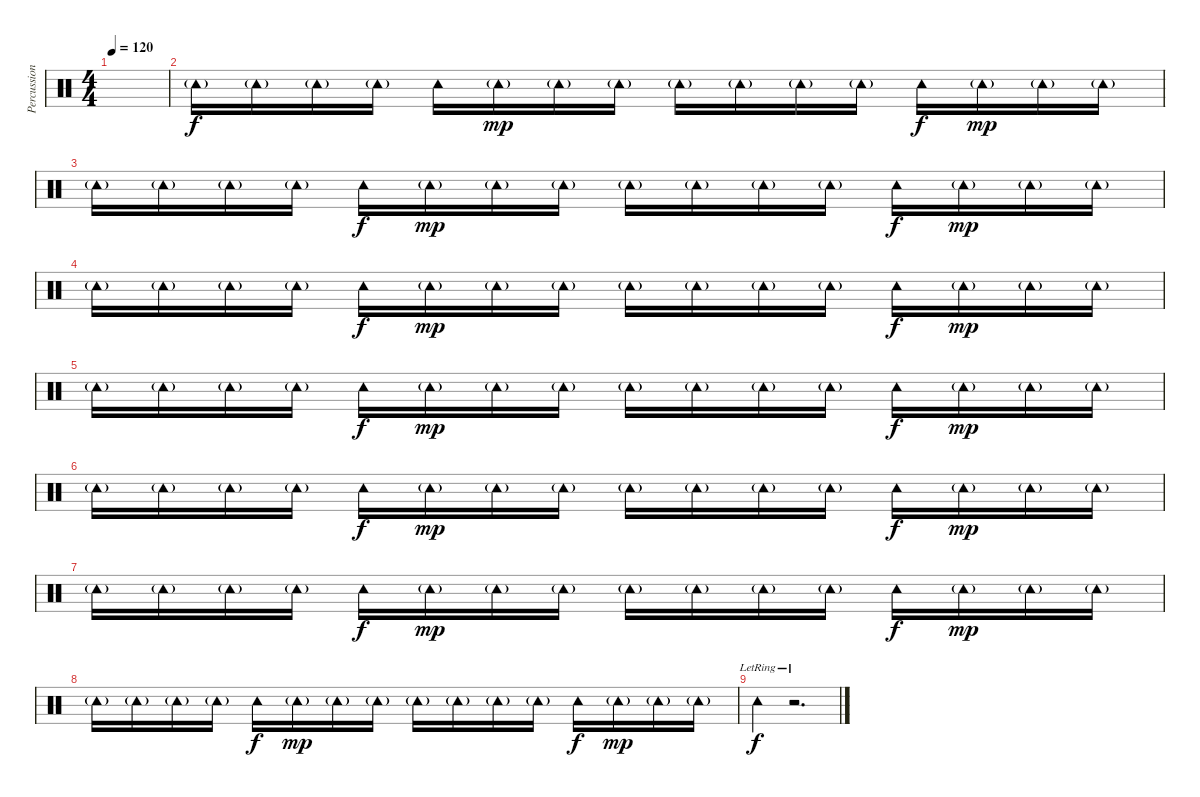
\track ("Percussion" "Percussion") {instrument percussion}
\staff {score}
\articulation defaults
\ts (4 4)
\tempo 120
\clef neutral
\ks c
|
"Tambourine (hit)"{g}.16 "Tambourine (hit)"{g}.16 "Tambourine (hit)"{g}.16 "Tambourine (hit)"{g}.16 "Tambourine (hit)".16{dy f} "Tambourine (hit)"{g}.16{dy mp} "Tambourine (hit)"{g}.16 "Tambourine (hit)"{g}.16 "Tambourine (hit)"{g}.16 "Tambourine (hit)"{g}.16 "Tambourine (hit)"{g}.16 "Tambourine (hit)"{g}.16 "Tambourine (hit)".16{dy f} "Tambourine (hit)"{g}.16{dy mp} "Tambourine (hit)"{g}.16 "Tambourine (hit)"{g}.16 |
"Tambourine (hit)"{g}.16 "Tambourine (hit)"{g}.16 "Tambourine (hit)"{g}.16 "Tambourine (hit)"{g}.16 "Tambourine (hit)".16{dy f} "Tambourine (hit)"{g}.16{dy mp} "Tambourine (hit)"{g}.16 "Tambourine (hit)"{g}.16 "Tambourine (hit)"{g}.16 "Tambourine (hit)"{g}.16 "Tambourine (hit)"{g}.16 "Tambourine (hit)"{g}.16 "Tambourine (hit)".16{dy f} "Tambourine (hit)"{g}.16{dy mp} "Tambourine (hit)"{g}.16 "Tambourine (hit)"{g}.16 |
"Tambourine (hit)"{g}.16 "Tambourine (hit)"{g}.16 "Tambourine (hit)"{g}.16 "Tambourine (hit)"{g}.16 "Tambourine (hit)".16{dy f} "Tambourine (hit)"{g}.16{dy mp} "Tambourine (hit)"{g}.16 "Tambourine (hit)"{g}.16 "Tambourine (hit)"{g}.16 "Tambourine (hit)"{g}.16 "Tambourine (hit)"{g}.16 "Tambourine (hit)"{g}.16 "Tambourine (hit)".16{dy f} "Tambourine (hit)"{g}.16{dy mp} "Tambourine (hit)"{g}.16 "Tambourine (hit)"{g}.16 |
"Tambourine (hit)"{g}.16 "Tambourine (hit)"{g}.16 "Tambourine (hit)"{g}.16 "Tambourine (hit)"{g}.16 "Tambourine (hit)".16{dy f} "Tambourine (hit)"{g}.16{dy mp} "Tambourine (hit)"{g}.16 "Tambourine (hit)"{g}.16 "Tambourine (hit)"{g}.16 "Tambourine (hit)"{g}.16 "Tambourine (hit)"{g}.16 "Tambourine (hit)"{g}.16 "Tambourine (hit)".16{dy f} "Tambourine (hit)"{g}.16{dy mp} "Tambourine (hit)"{g}.16 "Tambourine (hit)"{g}.16 |
"Tambourine (hit)"{g}.16 "Tambourine (hit)"{g}.16 "Tambourine (hit)"{g}.16 "Tambourine (hit)"{g}.16 "Tambourine (hit)".16{dy f} "Tambourine (hit)"{g}.16{dy mp} "Tambourine (hit)"{g}.16 "Tambourine (hit)"{g}.16 "Tambourine (hit)"{g}.16 "Tambourine (hit)"{g}.16 "Tambourine (hit)"{g}.16 "Tambourine (hit)"{g}.16 "Tambourine (hit)".16{dy f} "Tambourine (hit)"{g}.16{dy mp} "Tambourine (hit)"{g}.16 "Tambourine (hit)"{g}.16 |
"Tambourine (hit)"{g}.16 "Tambourine (hit)"{g}.16 "Tambourine (hit)"{g}.16 "Tambourine (hit)"{g}.16 "Tambourine (hit)".16{dy f} "Tambourine (hit)"{g}.16{dy mp} "Tambourine (hit)"{g}.16 "Tambourine (hit)"{g}.16 "Tambourine (hit)"{g}.16 "Tambourine (hit)"{g}.16 "Tambourine (hit)"{g}.16 "Tambourine (hit)"{g}.16 "Tambourine (hit)".16{dy f} "Tambourine (hit)"{g}.16{dy mp} "Tambourine (hit)"{g}.16 "Tambourine (hit)"{g}.16 |
"Tambourine (hit)"{g}.16 "Tambourine (hit)"{g}.16 "Tambourine (hit)"{g}.16 "Tambourine (hit)"{g}.16 "Tambourine (hit)".16{dy f} "Tambourine (hit)"{g}.16{dy mp} "Tambourine (hit)"{g}.16 "Tambourine (hit)"{g}.16 "Tambourine (hit)"{g}.16 "Tambourine (hit)"{g}.16 "Tambourine (hit)"{g}.16 "Tambourine (hit)"{g}.16 "Tambourine (hit)".16{dy f} "Tambourine (hit)"{g}.16{dy mp} "Tambourine (hit)"{g}.16 "Tambourine (hit)"{g}.16 |
"Tambourine (hit)"{lr}.4{dy f} r.2{d}
